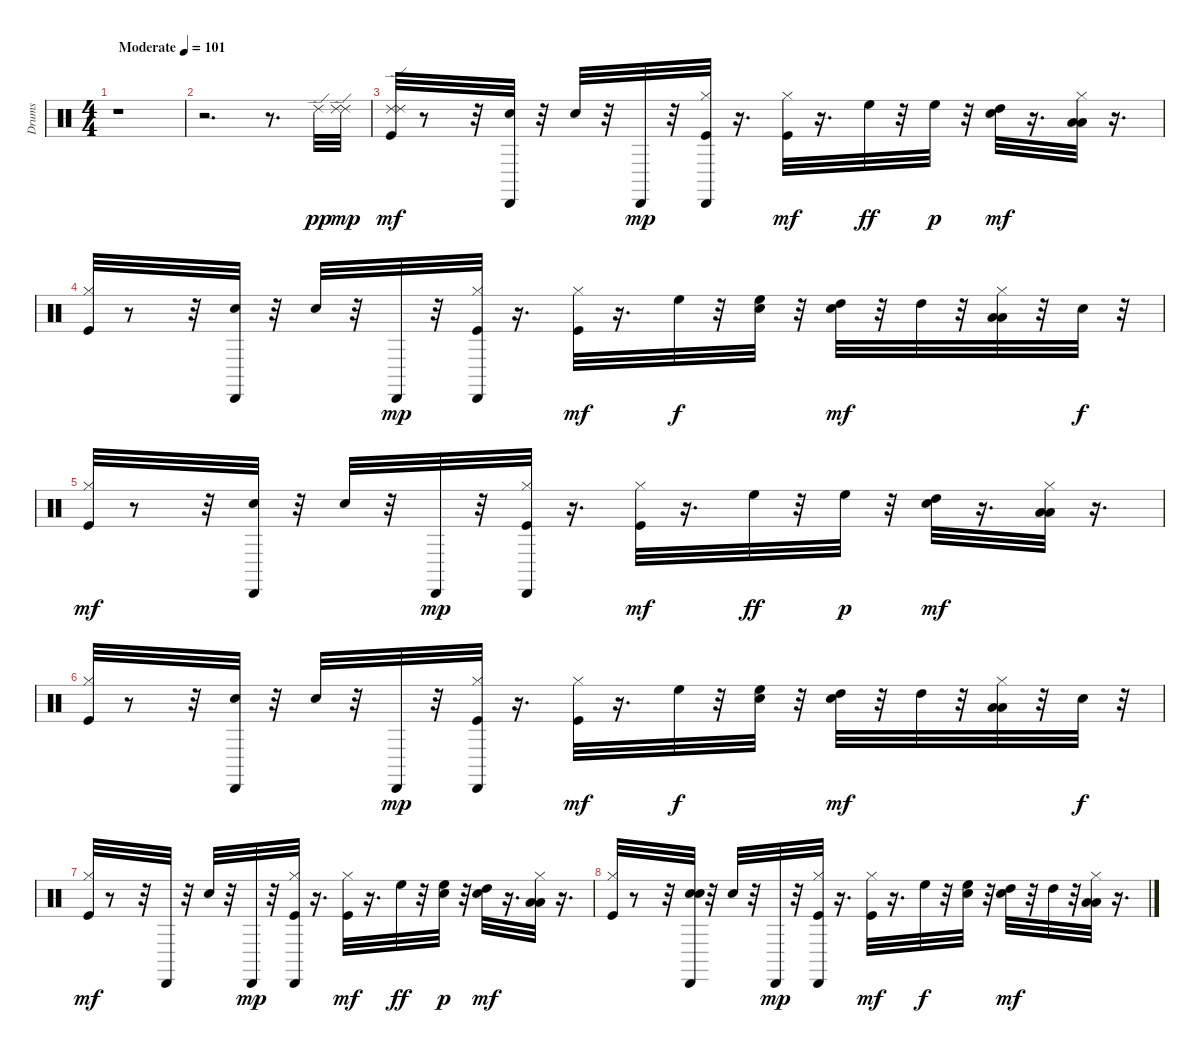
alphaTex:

\track ("Drums" "Drums") {instrument percussion}
\staff {score}
\articulation defaults
\ts (4 4)
\tempo (101 "Moderate")
\clef neutral
\ks c
r.1{dy pp} |
r.2{d} r.8{d} "Ride (edge) 2".32 ("Ride (edge) 2" "Ride (edge) 2").32{dy mp} |
("Ride (edge) 2" "Kick (hit)" "Ride (edge) 2").32{dy mf} r.8 r.32 ("Hand Clap (hit)" "Cabasa (hit)").32 r.32 "Snare (hit) 2".32 r.32 "Cabasa (hit)".32{dy mp} r.32 ("Kick (hit)" "Hi-Hat (closed)" "Cabasa (hit)").32 r.16{d} ("Kick (hit)" "Hi-Hat (closed)").32{dy mf} r.16{d} "High Floor Tom (hit)".32{dy ff} r.32 "High Floor Tom (hit)".32{dy p} r.32 ("Snare (hit) 2" "High Tom (hit)").32{dy mf} r.16{d} ("Low Floor Tom (hit)" "Hi-Hat (closed)" "Low Tom (hit)").32 r.16{d} |
("Kick (hit)" "Hi-Hat (closed)").32 r.8 r.32 ("Hand Clap (hit)" "Cabasa (hit)").32 r.32 "Snare (hit) 2".32 r.32 "Cabasa (hit)".32{dy mp} r.32 ("Kick (hit)" "Hi-Hat (closed)" "Cabasa (hit)").32 r.16{d} ("Kick (hit)" "Hi-Hat (closed)").32{dy mf} r.16{d} "High Floor Tom (hit)".32{dy f} r.32 ("Hand Clap (hit)" "High Floor Tom (hit)").32 r.32 ("Snare (hit) 2" "High Tom (hit)").32{dy mf} r.32 "High Tom (hit)".32 r.32 ("Low Floor Tom (hit)" "Hi-Hat (closed)" "Low Tom (hit)").32 r.32 "Hand Clap (hit)".32{dy f} r.32 |
("Kick (hit)" "Hi-Hat (closed)").32{dy mf} r.8 r.32 ("Hand Clap (hit)" "Cabasa (hit)").32 r.32 "Snare (hit) 2".32 r.32 "Cabasa (hit)".32{dy mp} r.32 ("Kick (hit)" "Hi-Hat (closed)" "Cabasa (hit)").32 r.16{d} ("Kick (hit)" "Hi-Hat (closed)").32{dy mf} r.16{d} "High Floor Tom (hit)".32{dy ff} r.32 "High Floor Tom (hit)".32{dy p} r.32 ("Snare (hit) 2" "High Tom (hit)").32{dy mf} r.16{d} ("Low Floor Tom (hit)" "Hi-Hat (closed)" "Low Tom (hit)").32 r.16{d} |
("Kick (hit)" "Hi-Hat (closed)").32 r.8 r.32 ("Hand Clap (hit)" "Cabasa (hit)").32 r.32 "Snare (hit) 2".32 r.32 "Cabasa (hit)".32{dy mp} r.32 ("Kick (hit)" "Hi-Hat (closed)" "Cabasa (hit)").32 r.16{d} ("Kick (hit)" "Hi-Hat (closed)").32{dy mf} r.16{d} "High Floor Tom (hit)".32{dy f} r.32 ("Hand Clap (hit)" "High Floor Tom (hit)").32 r.32 ("Snare (hit) 2" "High Tom (hit)").32{dy mf} r.32 "High Tom (hit)".32 r.32 ("Low Floor Tom (hit)" "Hi-Hat (closed)" "Low Tom (hit)").32 r.32 "Hand Clap (hit)".32{dy f} r.32 |
("Kick (hit)" "Hi-Hat (closed)").32{dy mf} r.8 r.32 "Cabasa (hit)".32 r.32 "Snare (hit) 2".32 r.32 "Cabasa (hit)".32{dy mp} r.32 ("Kick (hit)" "Hi-Hat (closed)" "Cabasa (hit)").32 r.16{d} ("Kick (hit)" "Hi-Hat (closed)").32{dy mf} r.16{d} "High Floor Tom (hit)".32{dy ff} r.32 ("Hand Clap (hit)" "High Floor Tom (hit)").32{dy p} r.32 ("Snare (hit) 2" "High Tom (hit)").32{dy mf} r.16{d} ("Low Floor Tom (hit)" "Hi-Hat (closed)" "Low Tom (hit)").32 r.16{d} |
("Kick (hit)" "Hi-Hat (closed)").32 r.8 r.32 ("Hand Clap (hit)" "Hand Clap (hit)" "Cabasa (hit)").32 r.32 "Snare (hit) 2".32 r.32 "Cabasa (hit)".32{dy mp} r.32 ("Kick (hit)" "Hi-Hat (closed)" "Cabasa (hit)").32 r.16{d} ("Kick (hit)" "Hi-Hat (closed)").32{dy mf} r.16{d} "High Floor Tom (hit)".32{dy f} r.32 ("Hand Clap (hit)" "High Floor Tom (hit)").32 r.32 ("Snare (hit) 2" "High Tom (hit)").32{dy mf} r.32 "High Tom (hit)".32 r.32 ("Low Floor Tom (hit)" "Hi-Hat (closed)" "Low Tom (hit)").32 r.16{d}
